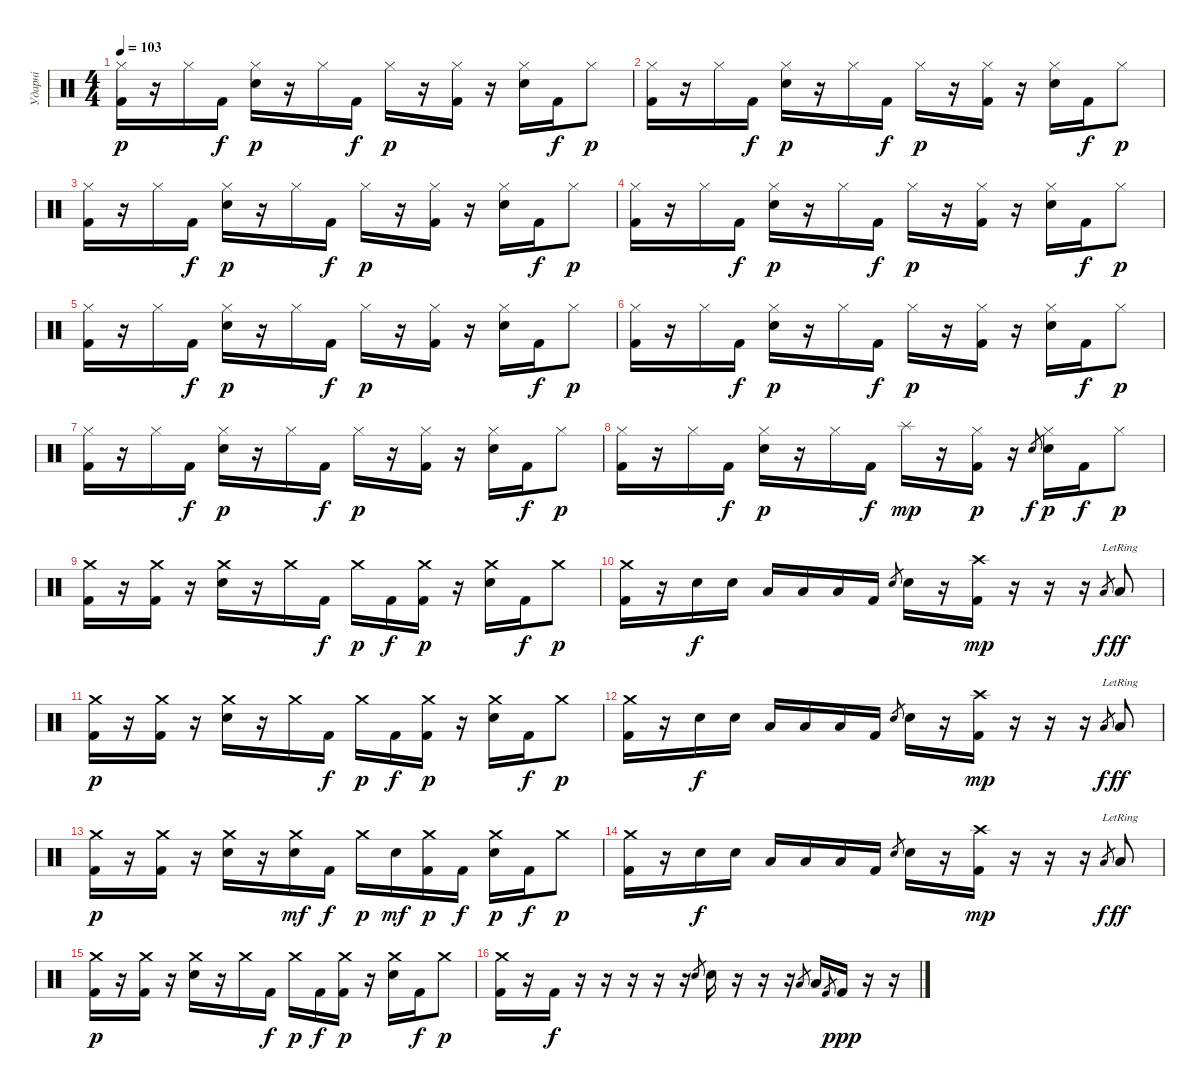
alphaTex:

\track ("Ударні" "Ударні") {instrument percussion}
\staff {score}
\articulation defaults
\ts (4 4)
\tempo 103
\clef neutral
\ks c
("Hi-Hat (closed)" "Kick (hit) 2").16{dy p} r.16 "Hi-Hat (closed)".16 "Kick (hit) 2".16{dy f} ("Hi-Hat (closed)" "Electric Snare (hit)").16{dy p} r.16 "Hi-Hat (closed)".16 "Kick (hit) 2".16{dy f} "Hi-Hat (closed)".16{dy p} r.16 ("Hi-Hat (closed)" "Kick (hit) 2").16 r.16 ("Hi-Hat (closed)" "Electric Snare (hit)").16 "Kick (hit) 2".16{dy f} "Hi-Hat (closed)".8{dy p} |
("Hi-Hat (closed)" "Kick (hit) 2").16 r.16 "Hi-Hat (closed)".16 "Kick (hit) 2".16{dy f} ("Hi-Hat (closed)" "Electric Snare (hit)").16{dy p} r.16 "Hi-Hat (closed)".16 "Kick (hit) 2".16{dy f} "Hi-Hat (closed)".16{dy p} r.16 ("Hi-Hat (closed)" "Kick (hit) 2").16 r.16 ("Hi-Hat (closed)" "Electric Snare (hit)").16 "Kick (hit) 2".16{dy f} "Hi-Hat (closed)".8{dy p} |
("Hi-Hat (closed)" "Kick (hit) 2").16 r.16 "Hi-Hat (closed)".16 "Kick (hit) 2".16{dy f} ("Hi-Hat (closed)" "Electric Snare (hit)").16{dy p} r.16 "Hi-Hat (closed)".16 "Kick (hit) 2".16{dy f} "Hi-Hat (closed)".16{dy p} r.16 ("Hi-Hat (closed)" "Kick (hit) 2").16 r.16 ("Hi-Hat (closed)" "Electric Snare (hit)").16 "Kick (hit) 2".16{dy f} "Hi-Hat (closed)".8{dy p} |
("Hi-Hat (closed)" "Kick (hit) 2").16 r.16 "Hi-Hat (closed)".16 "Kick (hit) 2".16{dy f} ("Hi-Hat (closed)" "Electric Snare (hit)").16{dy p} r.16 "Hi-Hat (closed)".16 "Kick (hit) 2".16{dy f} "Hi-Hat (closed)".16{dy p} r.16 ("Hi-Hat (closed)" "Kick (hit) 2").16 r.16 ("Hi-Hat (closed)" "Electric Snare (hit)").16 "Kick (hit) 2".16{dy f} "Hi-Hat (closed)".8{dy p} |
("Hi-Hat (closed)" "Kick (hit) 2").16 r.16 "Hi-Hat (closed)".16 "Kick (hit) 2".16{dy f} ("Hi-Hat (closed)" "Electric Snare (hit)").16{dy p} r.16 "Hi-Hat (closed)".16 "Kick (hit) 2".16{dy f} "Hi-Hat (closed)".16{dy p} r.16 ("Hi-Hat (closed)" "Kick (hit) 2").16 r.16 ("Hi-Hat (closed)" "Electric Snare (hit)").16 "Kick (hit) 2".16{dy f} "Hi-Hat (closed)".8{dy p} |
("Hi-Hat (closed)" "Kick (hit) 2").16 r.16 "Hi-Hat (closed)".16 "Kick (hit) 2".16{dy f} ("Hi-Hat (closed)" "Electric Snare (hit)").16{dy p} r.16 "Hi-Hat (closed)".16 "Kick (hit) 2".16{dy f} "Hi-Hat (closed)".16{dy p} r.16 ("Hi-Hat (closed)" "Kick (hit) 2").16 r.16 ("Hi-Hat (closed)" "Electric Snare (hit)").16 "Kick (hit) 2".16{dy f} "Hi-Hat (closed)".8{dy p} |
("Hi-Hat (closed)" "Kick (hit) 2").16 r.16 "Hi-Hat (closed)".16 "Kick (hit) 2".16{dy f} ("Hi-Hat (closed)" "Electric Snare (hit)").16{dy p} r.16 "Hi-Hat (closed)".16 "Kick (hit) 2".16{dy f} "Hi-Hat (closed)".16{dy p} r.16 ("Hi-Hat (closed)" "Kick (hit) 2").16 r.16 ("Hi-Hat (closed)" "Electric Snare (hit)").16 "Kick (hit) 2".16{dy f} "Hi-Hat (closed)".8{dy p} |
("Hi-Hat (closed)" "Kick (hit) 2").16 r.16 "Hi-Hat (closed)".16 "Kick (hit) 2".16{dy f} ("Hi-Hat (closed)" "Electric Snare (hit)").16{dy p} r.16 "Hi-Hat (closed)".16 "Kick (hit) 2".16{dy f} "Splash (hit)".16{dy mp} r.16 ("Hi-Hat (closed)" "Kick (hit) 2").16{dy p} r.16 "Electric Snare (hit)".8{gr dy f} ("Hi-Hat (closed)" "Electric Snare (hit)").16{dy p} "Kick (hit) 2".16{dy f} "Hi-Hat (closed)".8{dy p} |
("Crash medium (hit)" "Kick (hit) 2").16 r.16 ("Crash medium (hit)" "Kick (hit) 2").16 r.16 ("Crash medium (hit)" "Electric Snare (hit)").16 r.16 "Crash medium (hit)".16 "Kick (hit) 2".16{dy f} "Crash medium (hit)".16{dy p} "Kick (hit) 2".16{dy f} ("Crash medium (hit)" "Kick (hit) 2").16{dy p} r.16 ("Crash medium (hit)" "Electric Snare (hit)").16 "Kick (hit) 2".16{dy f} "Crash medium (hit)".8{dy p} |
("Crash medium (hit)" "Kick (hit) 2").16 r.16 "Electric Snare (hit)".16{dy f} "Electric Snare (hit)".16 "Low Tom (hit)".16 "Low Tom (hit)".16 "Low Floor Tom (hit)".16 "Kick (hit) 2".16 "Electric Snare (hit)".8{gr} "Electric Snare (hit)".16 r.16 ("Crash high (hit)" "Kick (hit) 2").16{dy mp} r.16 r.16 r.16 "Low Tom (hit)".8{gr dy f} "Low Floor Tom (hit)"{lr}.8{dy ff} |
("Crash medium (hit)" "Kick (hit) 2").16{dy p} r.16 ("Crash medium (hit)" "Kick (hit) 2").16 r.16 ("Crash medium (hit)" "Electric Snare (hit)").16 r.16 "Crash medium (hit)".16 "Kick (hit) 2".16{dy f} "Crash medium (hit)".16{dy p} "Kick (hit) 2".16{dy f} ("Crash medium (hit)" "Kick (hit) 2").16{dy p} r.16 ("Crash medium (hit)" "Electric Snare (hit)").16 "Kick (hit) 2".16{dy f} "Crash medium (hit)".8{dy p} |
("Crash medium (hit)" "Kick (hit) 2").16 r.16 "Electric Snare (hit)".16{dy f} "Electric Snare (hit)".16 "Low Tom (hit)".16 "Low Tom (hit)".16 "Low Floor Tom (hit)".16 "Kick (hit) 2".16 "Electric Snare (hit)".8{gr} "Electric Snare (hit)".16 r.16 ("Crash high (hit)" "Kick (hit) 2").16{dy mp} r.16 r.16 r.16 "Low Tom (hit)".8{gr dy f} "Low Floor Tom (hit)"{lr}.8{dy ff} |
("Crash medium (hit)" "Kick (hit) 2").16{dy p} r.16 ("Crash medium (hit)" "Kick (hit) 2").16 r.16 ("Crash medium (hit)" "Electric Snare (hit)").16 r.16 ("Crash medium (hit)" "Electric Snare (hit)").16{dy mf} "Kick (hit) 2".16{dy f} "Crash medium (hit)".16{dy p} "Electric Snare (hit)".16{dy mf} ("Crash medium (hit)" "Kick (hit) 2").16{dy p} "Kick (hit) 2".16{dy f} ("Crash medium (hit)" "Electric Snare (hit)").16{dy p} "Kick (hit) 2".16{dy f} "Crash medium (hit)".8{dy p} |
("Crash medium (hit)" "Kick (hit) 2").16 r.16 "Electric Snare (hit)".16{dy f} "Electric Snare (hit)".16 "Low Tom (hit)".16 "Low Tom (hit)".16 "Low Floor Tom (hit)".16 "Kick (hit) 2".16 "Electric Snare (hit)".8{gr} "Electric Snare (hit)".16 r.16 ("Crash high (hit)" "Kick (hit) 2").16{dy mp} r.16 r.16 r.16 "Low Tom (hit)".8{gr dy f} "Low Floor Tom (hit)"{lr}.8{dy ff} |
("Crash medium (hit)" "Kick (hit) 2").16{dy p} r.16 ("Crash medium (hit)" "Kick (hit) 2").16 r.16 ("Crash medium (hit)" "Electric Snare (hit)").16 r.16 "Crash medium (hit)".16 "Kick (hit) 2".16{dy f} "Crash medium (hit)".16{dy p} "Kick (hit) 2".16{dy f} ("Crash medium (hit)" "Kick (hit) 2").16{dy p} r.16 ("Crash medium (hit)" "Electric Snare (hit)").16 "Kick (hit) 2".16{dy f} "Crash medium (hit)".8{dy p} |
("Crash medium (hit)" "Kick (hit) 2").16 r.16 "Kick (hit) 2".16{dy f} r.16 r.16 r.16 r.16 r.16 "Electric Snare (hit)".8{gr} "Electric Snare (hit)".16 r.16 r.16 r.16 "Low Tom (hit)".8{gr} "Low Floor Tom (hit)".16 "Kick (hit) 2".8{gr} "Kick (hit) 2".16{dy ppp} r.16 r.16
